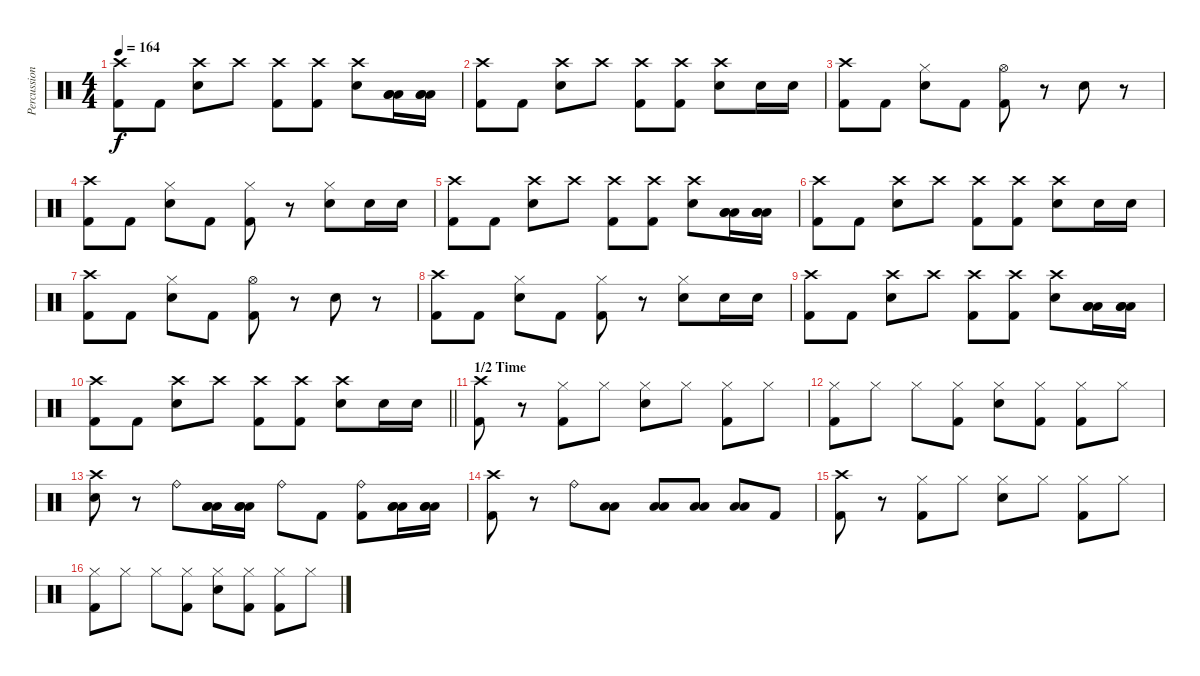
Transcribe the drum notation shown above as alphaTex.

\track ("Percussion" "Percussion") {instrument percussion}
\staff {score}
\articulation defaults
\ts (4 4)
\tempo 164
\clef neutral
\ks c
("Kick (hit) 2" "Crash high (hit)").8{dy f} "Kick (hit) 2".8 ("Crash high (hit)" "Snare (hit) 2").8 "Crash high (hit)".8 ("Kick (hit) 2" "Crash high (hit)").8 ("Kick (hit) 2" "Crash high (hit)").8 ("Crash high (hit)" "Snare (hit) 2").8 ("Low Floor Tom (hit)" "Low Floor Tom (hit)" "Low Floor Tom (hit)").16 ("Low Floor Tom (hit)" "Low Floor Tom (hit)" "Low Floor Tom (hit)").16 |
("Kick (hit) 2" "Crash high (hit)").8 "Kick (hit) 2".8 ("Crash high (hit)" "Snare (hit) 2").8 "Crash high (hit)".8 ("Kick (hit) 2" "Crash high (hit)").8 ("Kick (hit) 2" "Crash high (hit)").8 ("Crash high (hit)" "Snare (hit) 2").8 "Snare (hit) 2".16 "Snare (hit) 2".16 |
("Kick (hit) 2" "Crash high (hit)").8 "Kick (hit) 2".8 ("Snare (hit) 2" "Hi-Hat (closed)").8 "Kick (hit) 2".8 ("Kick (hit) 2" "Hi-Hat (open)").8 r.8 "Snare (hit) 2".8 r.8 |
("Kick (hit) 2" "Crash high (hit)").8 "Kick (hit) 2".8 ("Snare (hit) 2" "Hi-Hat (closed)").8 "Kick (hit) 2".8 ("Kick (hit) 2" "Hi-Hat (closed)").8 r.8 ("Snare (hit) 2" "Hi-Hat (closed)").8 "Snare (hit) 2".16 "Snare (hit) 2".16 |
("Kick (hit) 2" "Crash high (hit)").8 "Kick (hit) 2".8 ("Crash high (hit)" "Snare (hit) 2").8 "Crash high (hit)".8 ("Kick (hit) 2" "Crash high (hit)").8 ("Kick (hit) 2" "Crash high (hit)").8 ("Crash high (hit)" "Snare (hit) 2").8 ("Low Floor Tom (hit)" "Low Floor Tom (hit)" "Low Floor Tom (hit)").16 ("Low Floor Tom (hit)" "Low Floor Tom (hit)" "Low Floor Tom (hit)").16 |
("Kick (hit) 2" "Crash high (hit)").8 "Kick (hit) 2".8 ("Crash high (hit)" "Snare (hit) 2").8 "Crash high (hit)".8 ("Kick (hit) 2" "Crash high (hit)").8 ("Kick (hit) 2" "Crash high (hit)").8 ("Crash high (hit)" "Snare (hit) 2").8 "Snare (hit) 2".16 "Snare (hit) 2".16 |
("Kick (hit) 2" "Crash high (hit)").8 "Kick (hit) 2".8 ("Snare (hit) 2" "Hi-Hat (closed)").8 "Kick (hit) 2".8 ("Kick (hit) 2" "Hi-Hat (open)").8 r.8 "Snare (hit) 2".8 r.8 |
("Kick (hit) 2" "Crash high (hit)").8 "Kick (hit) 2".8 ("Snare (hit) 2" "Hi-Hat (closed)").8 "Kick (hit) 2".8 ("Kick (hit) 2" "Hi-Hat (closed)").8 r.8 ("Snare (hit) 2" "Hi-Hat (closed)").8 "Snare (hit) 2".16 "Snare (hit) 2".16 |
("Kick (hit) 2" "Crash high (hit)").8 "Kick (hit) 2".8 ("Crash high (hit)" "Snare (hit) 2").8 "Crash high (hit)".8 ("Kick (hit) 2" "Crash high (hit)").8 ("Kick (hit) 2" "Crash high (hit)").8 ("Crash high (hit)" "Snare (hit) 2").8 ("Low Floor Tom (hit)" "Low Floor Tom (hit)" "Low Floor Tom (hit)").16 ("Low Floor Tom (hit)" "Low Floor Tom (hit)" "Low Floor Tom (hit)").16 |
\barLineRight lightlight
("Kick (hit) 2" "Crash high (hit)").8 "Kick (hit) 2".8 ("Crash high (hit)" "Snare (hit) 2").8 "Crash high (hit)".8 ("Kick (hit) 2" "Crash high (hit)").8 ("Kick (hit) 2" "Crash high (hit)").8 ("Crash high (hit)" "Snare (hit) 2").8 "Snare (hit) 2".16 "Snare (hit) 2".16 |
\section ("" "1/2 Time")
("Kick (hit) 2" "Crash high (hit)").8 r.8 ("Kick (hit) 2" "Hi-Hat (closed)").8 "Hi-Hat (closed)".8 ("Snare (hit) 2" "Hi-Hat (closed)").8 "Hi-Hat (closed)".8 ("Kick (hit) 2" "Hi-Hat (closed)").8 "Hi-Hat (closed)".8 |
("Kick (hit) 2" "Hi-Hat (closed)").8 "Hi-Hat (closed)".8 "Hi-Hat (closed)".8 ("Kick (hit) 2" "Hi-Hat (closed)").8 ("Snare (hit) 2" "Hi-Hat (closed)").8 ("Kick (hit) 2" "Hi-Hat (closed)").8 ("Kick (hit) 2" "Hi-Hat (closed)").8 "Hi-Hat (closed)".8 |
("Crash high (hit)" "Snare (hit) 2").8 r.8 "Ride (bell)".8 ("Low Tom (hit)" "Low Tom (hit)" "Low Tom (hit)").16 ("Low Tom (hit)" "Low Tom (hit)" "Low Tom (hit)").16 "Ride (bell)".8 "Kick (hit) 2".8 ("Kick (hit) 2" "Ride (bell)").8 ("Low Floor Tom (hit)" "Low Floor Tom (hit)" "Low Floor Tom (hit)").16 ("Low Floor Tom (hit)" "Low Floor Tom (hit)" "Low Floor Tom (hit)").16 |
("Kick (hit) 2" "Crash high (hit)").8 r.8 "Ride (bell)".8 ("Low Tom (hit)" "Low Tom (hit)").8 ("Low Tom (hit)" "Low Tom (hit)").8 ("Low Floor Tom (hit)" "Low Floor Tom (hit)").8 ("Low Floor Tom (hit)" "Low Floor Tom (hit)").8 "Kick (hit) 2".8 |
("Kick (hit) 2" "Crash high (hit)").8 r.8 ("Kick (hit) 2" "Hi-Hat (closed)").8 "Hi-Hat (closed)".8 ("Snare (hit) 2" "Hi-Hat (closed)").8 "Hi-Hat (closed)".8 ("Kick (hit) 2" "Hi-Hat (closed)").8 "Hi-Hat (closed)".8 |
("Kick (hit) 2" "Hi-Hat (closed)").8 "Hi-Hat (closed)".8 "Hi-Hat (closed)".8 ("Kick (hit) 2" "Hi-Hat (closed)").8 ("Snare (hit) 2" "Hi-Hat (closed)").8 ("Kick (hit) 2" "Hi-Hat (closed)").8 ("Kick (hit) 2" "Hi-Hat (closed)").8 "Hi-Hat (closed)".8
